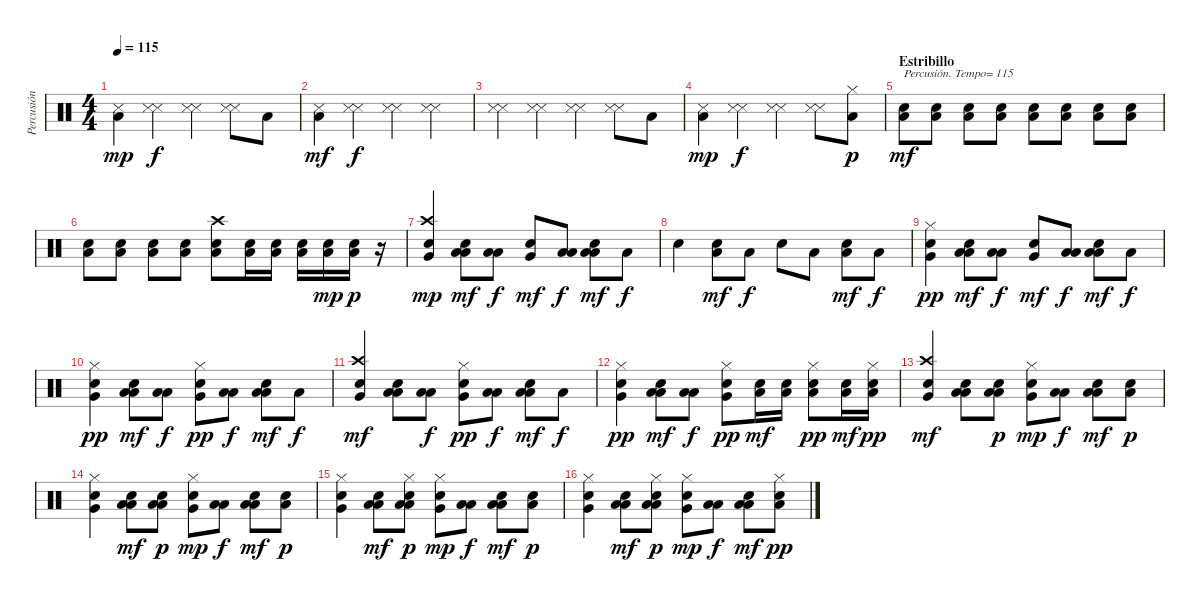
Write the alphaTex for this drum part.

\track ("Percusión" "Percusión") {instrument percussion}
\staff {score}
\articulation defaults
\ts (4 4)
\tempo 115
\clef neutral
\ks c
("Low Floor Tom (hit)" "Snare (side stick) 3").4{dy mp} ("Metronome (hit)" "Snare (side stick) 3").4{dy f} ("Metronome (hit)" "Snare (side stick) 3").4 ("Metronome (hit)" "Snare (side stick) 3").8 "Low Floor Tom (hit)".8 |
("Low Floor Tom (hit)" "Snare (side stick) 3").4{dy mf} ("Metronome (hit)" "Snare (side stick) 3").4{dy f} ("Metronome (hit)" "Snare (side stick) 3").4 ("Metronome (hit)" "Snare (side stick) 3").4 |
("Metronome (hit)" "Snare (side stick) 3").4 ("Metronome (hit)" "Snare (side stick) 3").4 ("Metronome (hit)" "Snare (side stick) 3").4 ("Metronome (hit)" "Snare (side stick) 3").8 "Low Floor Tom (hit)".8 |
("Low Floor Tom (hit)" "Snare (side stick) 3").4{dy mp} ("Metronome (hit)" "Snare (side stick) 3").4{dy f} ("Metronome (hit)" "Snare (side stick) 3").4 ("Metronome (hit)" "Snare (side stick) 3").8 ("Low Floor Tom (hit)" "Hi-Hat (closed)").8{dy p} |
\section ("" "Estribillo")
("Snare (hit) 2" "Low Floor Tom (hit)").8{txt "Percusión. Tempo= 115" dy mf} ("Snare (hit) 2" "Low Floor Tom (hit)").8 ("Snare (hit) 2" "Low Floor Tom (hit)").8 ("Snare (hit) 2" "Low Floor Tom (hit)").8 ("Snare (hit) 2" "Low Floor Tom (hit)").8 ("Snare (hit) 2" "Low Floor Tom (hit)").8 ("Snare (hit) 2" "Low Floor Tom (hit)").8 ("Snare (hit) 2" "Low Floor Tom (hit)").8 |
("Snare (hit) 2" "Low Floor Tom (hit)").8 ("Snare (hit) 2" "Low Floor Tom (hit)").8 ("Snare (hit) 2" "Low Floor Tom (hit)").8 ("Snare (hit) 2" "Low Floor Tom (hit)").8 ("Snare (hit) 2" "Low Floor Tom (hit)" "Crash high (hit)").8 ("Snare (hit) 2" "Low Floor Tom (hit)").16 ("Snare (hit) 2" "Low Floor Tom (hit)").16 ("Snare (hit) 2" "Low Floor Tom (hit)").16 ("Snare (hit) 2" "Low Floor Tom (hit)").16{dy mp} ("Snare (hit) 2" "Low Floor Tom (hit)").16{dy p} r.16 |
("Snare (hit) 2" "Very Low Tom (hit)" "Crash high (hit)").4{dy mp} ("Low Floor Tom (hit)" "Low Floor Tom (hit)" "Snare (hit) 2").8{dy mf} ("Low Floor Tom (hit)" "Low Floor Tom (hit)").8{dy f} ("Snare (hit) 2" "Very Low Tom (hit)").8{dy mf} ("Low Floor Tom (hit)" "Low Floor Tom (hit)").8{dy f} ("Low Floor Tom (hit)" "Low Floor Tom (hit)" "Snare (hit) 2").8{dy mf} "Low Floor Tom (hit)".8{dy f} |
"Snare (hit) 2".4 ("Low Floor Tom (hit)" "Snare (hit) 2").8{dy mf} "Low Floor Tom (hit)".8{dy f} "Snare (hit) 2".8 "Low Floor Tom (hit)".8 ("Low Floor Tom (hit)" "Snare (hit) 2").8{dy mf} "Low Floor Tom (hit)".8{dy f} |
("Snare (hit) 2" "Very Low Tom (hit)" "Hi-Hat (closed)").4{dy pp} ("Low Floor Tom (hit)" "Low Floor Tom (hit)" "Snare (hit) 2").8{dy mf} ("Low Floor Tom (hit)" "Low Floor Tom (hit)").8{dy f} ("Snare (hit) 2" "Very Low Tom (hit)").8{dy mf} ("Low Floor Tom (hit)" "Low Floor Tom (hit)").8{dy f} ("Low Floor Tom (hit)" "Low Floor Tom (hit)" "Snare (hit) 2").8{dy mf} "Low Floor Tom (hit)".8{dy f} |
("Snare (hit) 2" "Very Low Tom (hit)" "Hi-Hat (closed)").4{dy pp} ("Low Floor Tom (hit)" "Low Floor Tom (hit)" "Snare (hit) 2").8{dy mf} ("Low Floor Tom (hit)" "Low Floor Tom (hit)").8{dy f} ("Snare (hit) 2" "Very Low Tom (hit)" "Hi-Hat (closed)").8{dy pp} ("Low Floor Tom (hit)" "Low Floor Tom (hit)").8{dy f} ("Low Floor Tom (hit)" "Low Floor Tom (hit)" "Snare (hit) 2").8{dy mf} "Low Floor Tom (hit)".8{dy f} |
("Snare (hit) 2" "Very Low Tom (hit)" "Crash high (hit)").4{dy mf} ("Low Floor Tom (hit)" "Low Floor Tom (hit)" "Snare (hit) 2").8 ("Low Floor Tom (hit)" "Low Floor Tom (hit)").8{dy f} ("Snare (hit) 2" "Very Low Tom (hit)" "Hi-Hat (closed)").8{dy pp} ("Low Floor Tom (hit)" "Low Floor Tom (hit)").8{dy f} ("Low Floor Tom (hit)" "Low Floor Tom (hit)" "Snare (hit) 2").8{dy mf} "Low Floor Tom (hit)".8{dy f} |
("Snare (hit) 2" "Very Low Tom (hit)" "Hi-Hat (closed)").4{dy pp} ("Low Floor Tom (hit)" "Low Floor Tom (hit)" "Snare (hit) 2").8{dy mf} ("Low Floor Tom (hit)" "Low Floor Tom (hit)").8{dy f} ("Snare (hit) 2" "Very Low Tom (hit)" "Hi-Hat (closed)").8{dy pp} ("Snare (hit) 2" "Low Floor Tom (hit)").16{dy mf} ("Snare (hit) 2" "Low Floor Tom (hit)").16 ("Snare (hit) 2" "Low Floor Tom (hit)" "Hi-Hat (closed)").8{dy pp} ("Snare (hit) 2" "Low Floor Tom (hit)").16{dy mf} ("Snare (hit) 2" "Low Floor Tom (hit)" "Hi-Hat (closed)").16{dy pp} |
("Snare (hit) 2" "Very Low Tom (hit)" "Crash high (hit)").4{dy mf} ("Low Floor Tom (hit)" "Low Floor Tom (hit)" "Snare (hit) 2").8 ("Low Floor Tom (hit)" "Low Floor Tom (hit)" "Snare (hit) 2").8{dy p} ("Snare (hit) 2" "Very Low Tom (hit)" "Hi-Hat (closed)").8{dy mp} ("Low Floor Tom (hit)" "Low Floor Tom (hit)").8{dy f} ("Low Floor Tom (hit)" "Low Floor Tom (hit)" "Snare (hit) 2").8{dy mf} ("Low Floor Tom (hit)" "Snare (hit) 2").8{dy p} |
("Snare (hit) 2" "Very Low Tom (hit)" "Hi-Hat (closed)").4 ("Low Floor Tom (hit)" "Low Floor Tom (hit)" "Snare (hit) 2").8{dy mf} ("Low Floor Tom (hit)" "Low Floor Tom (hit)" "Snare (hit) 2").8{dy p} ("Snare (hit) 2" "Very Low Tom (hit)" "Hi-Hat (closed)").8{dy mp} ("Low Floor Tom (hit)" "Low Floor Tom (hit)").8{dy f} ("Low Floor Tom (hit)" "Low Floor Tom (hit)" "Snare (hit) 2").8{dy mf} ("Low Floor Tom (hit)" "Snare (hit) 2").8{dy p} |
("Snare (hit) 2" "Very Low Tom (hit)" "Hi-Hat (closed)").4 ("Low Floor Tom (hit)" "Low Floor Tom (hit)" "Snare (hit) 2").8{dy mf} ("Low Floor Tom (hit)" "Low Floor Tom (hit)" "Hi-Hat (closed)" "Snare (hit) 2").8{dy p} ("Snare (hit) 2" "Very Low Tom (hit)" "Hi-Hat (closed)").8{dy mp} ("Low Floor Tom (hit)" "Low Floor Tom (hit)").8{dy f} ("Low Floor Tom (hit)" "Low Floor Tom (hit)" "Snare (hit) 2").8{dy mf} ("Low Floor Tom (hit)" "Snare (hit) 2").8{dy p} |
("Snare (hit) 2" "Very Low Tom (hit)" "Hi-Hat (closed)").4 ("Low Floor Tom (hit)" "Low Floor Tom (hit)" "Snare (hit) 2").8{dy mf} ("Low Floor Tom (hit)" "Low Floor Tom (hit)" "Hi-Hat (closed)" "Snare (hit) 2").8{dy p} ("Snare (hit) 2" "Very Low Tom (hit)" "Hi-Hat (closed)").8{dy mp} ("Low Floor Tom (hit)" "Low Floor Tom (hit)").8{dy f} ("Low Floor Tom (hit)" "Low Floor Tom (hit)" "Snare (hit) 2").8{dy mf} ("Low Floor Tom (hit)" "Snare (hit) 2" "Hi-Hat (closed)").8{dy pp}
